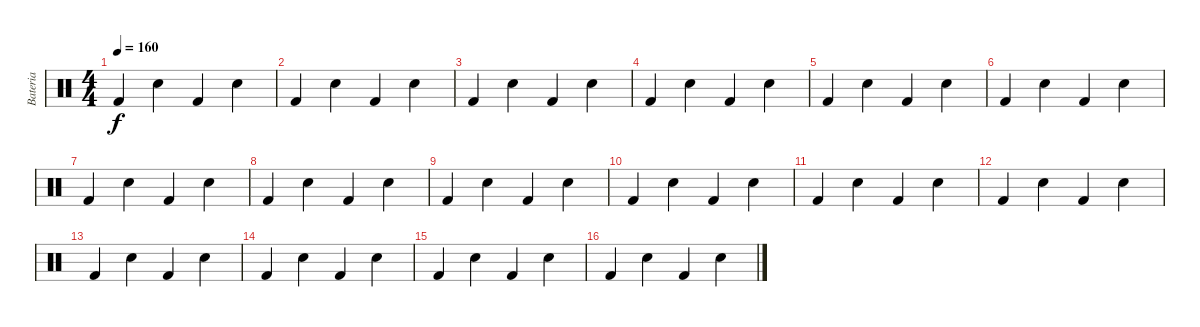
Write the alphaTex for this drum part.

\track ("Bateria" "Bateria") {instrument percussion}
\staff {score}
\articulation defaults
\ts (4 4)
\tempo 160
\clef neutral
\ks c "Kick (hit) 2".4{dy f} "Snare (hit) 2".4 "Kick (hit) 2".4 "Snare (hit) 2".4
|
"Kick (hit) 2".4 "Snare (hit) 2".4 "Kick (hit) 2".4 "Snare (hit) 2".4 |
"Kick (hit) 2".4 "Snare (hit) 2".4 "Kick (hit) 2".4 "Snare (hit) 2".4 |
"Kick (hit) 2".4 "Snare (hit) 2".4 "Kick (hit) 2".4 "Snare (hit) 2".4 |
"Kick (hit) 2".4 "Snare (hit) 2".4 "Kick (hit) 2".4 "Snare (hit) 2".4 |
"Kick (hit) 2".4 "Snare (hit) 2".4 "Kick (hit) 2".4 "Snare (hit) 2".4 |
"Kick (hit) 2".4 "Snare (hit) 2".4 "Kick (hit) 2".4 "Snare (hit) 2".4 |
"Kick (hit) 2".4 "Snare (hit) 2".4 "Kick (hit) 2".4 "Snare (hit) 2".4 |
"Kick (hit) 2".4 "Snare (hit) 2".4 "Kick (hit) 2".4 "Snare (hit) 2".4 |
"Kick (hit) 2".4 "Snare (hit) 2".4 "Kick (hit) 2".4 "Snare (hit) 2".4 |
"Kick (hit) 2".4 "Snare (hit) 2".4 "Kick (hit) 2".4 "Snare (hit) 2".4 |
"Kick (hit) 2".4 "Snare (hit) 2".4 "Kick (hit) 2".4 "Snare (hit) 2".4 |
"Kick (hit) 2".4 "Snare (hit) 2".4 "Kick (hit) 2".4 "Snare (hit) 2".4 |
"Kick (hit) 2".4 "Snare (hit) 2".4 "Kick (hit) 2".4 "Snare (hit) 2".4 |
"Kick (hit) 2".4 "Snare (hit) 2".4 "Kick (hit) 2".4 "Snare (hit) 2".4 |
"Kick (hit) 2".4 "Snare (hit) 2".4 "Kick (hit) 2".4 "Snare (hit) 2".4
